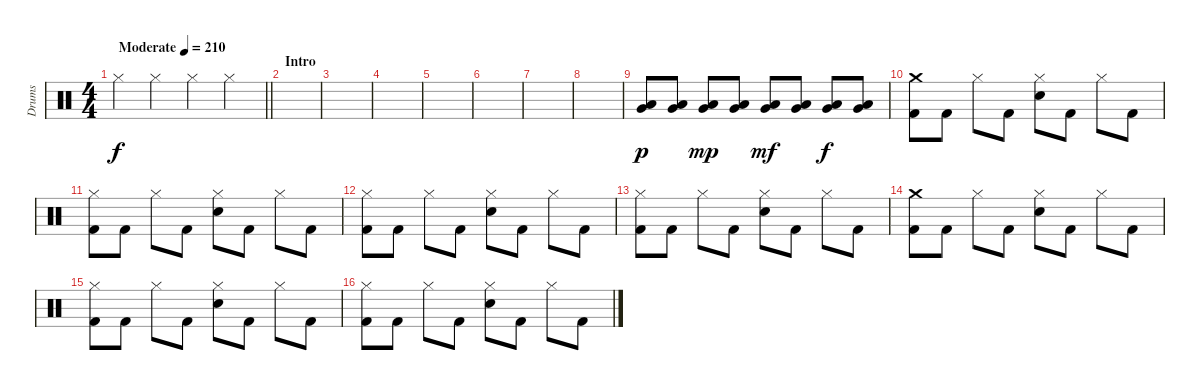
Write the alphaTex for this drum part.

\track ("Drums" "Drums") {instrument percussion}
\staff {score}
\articulation defaults
\ts (4 4)
\tempo (210 "Moderate")
\clef neutral
\barLineRight lightlight
\ks c "Hi-Hat (closed)".4{dy f} "Hi-Hat (closed)".4 "Hi-Hat (closed)".4 "Hi-Hat (closed)".4
|
\section ("" "Intro")
|
|
|
|
|
|
|
("Very Low Tom (hit)" "Low Tom (hit)").8{dy p} ("Very Low Tom (hit)" "Low Tom (hit)").8 ("Very Low Tom (hit)" "Low Tom (hit)").8{dy mp} ("Very Low Tom (hit)" "Low Tom (hit)").8 ("Very Low Tom (hit)" "Low Tom (hit)").8{dy mf} ("Very Low Tom (hit)" "Low Tom (hit)").8 ("Very Low Tom (hit)" "Low Tom (hit)").8{dy f} ("Very Low Tom (hit)" "Low Tom (hit)").8 |
("Kick (hit) 2" "Crash medium (hit)").8 "Kick (hit) 2".8 "Hi-Hat (closed)".8 "Kick (hit) 2".8 ("Snare (hit) 2" "Hi-Hat (closed)").8 "Kick (hit) 2".8 "Hi-Hat (closed)".8 "Kick (hit) 2".8 |
("Kick (hit) 2" "Hi-Hat (closed)").8 "Kick (hit) 2".8 "Hi-Hat (closed)".8 "Kick (hit) 2".8 ("Snare (hit) 2" "Hi-Hat (closed)").8 "Kick (hit) 2".8 "Hi-Hat (closed)".8 "Kick (hit) 2".8 |
("Kick (hit) 2" "Hi-Hat (closed)").8 "Kick (hit) 2".8 "Hi-Hat (closed)".8 "Kick (hit) 2".8 ("Snare (hit) 2" "Hi-Hat (closed)").8 "Kick (hit) 2".8 "Hi-Hat (closed)".8 "Kick (hit) 2".8 |
("Kick (hit) 2" "Hi-Hat (closed)").8 "Kick (hit) 2".8 "Hi-Hat (closed)".8 "Kick (hit) 2".8 ("Snare (hit) 2" "Hi-Hat (closed)").8 "Kick (hit) 2".8 "Hi-Hat (closed)".8 "Kick (hit) 2".8 |
("Kick (hit) 2" "Crash medium (hit)").8 "Kick (hit) 2".8 "Hi-Hat (closed)".8 "Kick (hit) 2".8 ("Snare (hit) 2" "Hi-Hat (closed)").8 "Kick (hit) 2".8 "Hi-Hat (closed)".8 "Kick (hit) 2".8 |
("Kick (hit) 2" "Hi-Hat (closed)").8 "Kick (hit) 2".8 "Hi-Hat (closed)".8 "Kick (hit) 2".8 ("Snare (hit) 2" "Hi-Hat (closed)").8 "Kick (hit) 2".8 "Hi-Hat (closed)".8 "Kick (hit) 2".8 |
("Kick (hit) 2" "Hi-Hat (closed)").8 "Kick (hit) 2".8 "Hi-Hat (closed)".8 "Kick (hit) 2".8 ("Snare (hit) 2" "Hi-Hat (closed)").8 "Kick (hit) 2".8 "Hi-Hat (closed)".8 "Kick (hit) 2".8
